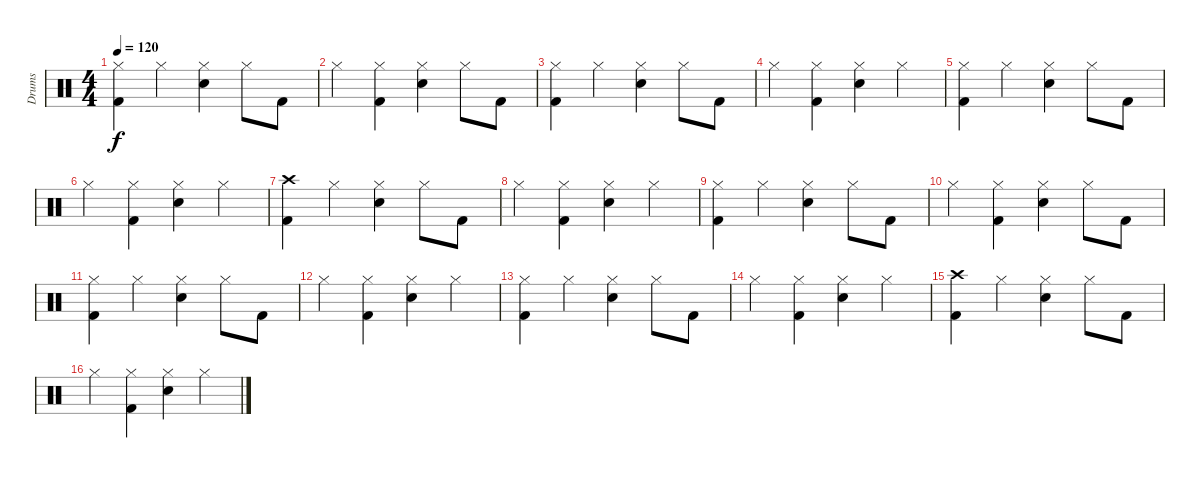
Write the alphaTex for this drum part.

\track ("Drums" "Drums") {instrument percussion}
\staff {score}
\articulation defaults
\ts (4 4)
\tempo 120
\clef neutral
\ks c
("Hi-Hat (closed)" "Kick (hit) 2").4{dy f} "Hi-Hat (closed)".4 ("Hi-Hat (closed)" "Snare (hit) 2").4 "Hi-Hat (closed)".8 "Kick (hit) 2".8 |
"Hi-Hat (closed)".4 ("Hi-Hat (closed)" "Kick (hit) 2").4 ("Hi-Hat (closed)" "Snare (hit) 2").4 "Hi-Hat (closed)".8 "Kick (hit) 2".8 |
("Hi-Hat (closed)" "Kick (hit) 2").4 "Hi-Hat (closed)".4 ("Hi-Hat (closed)" "Snare (hit) 2").4 "Hi-Hat (closed)".8 "Kick (hit) 2".8 |
"Hi-Hat (closed)".4 ("Hi-Hat (closed)" "Kick (hit) 2").4 ("Hi-Hat (closed)" "Snare (hit) 2").4 "Hi-Hat (closed)".4 |
("Hi-Hat (closed)" "Kick (hit) 2").4 "Hi-Hat (closed)".4 ("Hi-Hat (closed)" "Snare (hit) 2").4 "Hi-Hat (closed)".8 "Kick (hit) 2".8 |
"Hi-Hat (closed)".4 ("Hi-Hat (closed)" "Kick (hit) 2").4 ("Hi-Hat (closed)" "Snare (hit) 2").4 "Hi-Hat (closed)".4 |
("Crash high (hit)" "Kick (hit) 2").4 "Hi-Hat (closed)".4 ("Hi-Hat (closed)" "Snare (hit) 2").4 "Hi-Hat (closed)".8 "Kick (hit) 2".8 |
"Hi-Hat (closed)".4 ("Hi-Hat (closed)" "Kick (hit) 2").4 ("Hi-Hat (closed)" "Snare (hit) 2").4 "Hi-Hat (closed)".4 |
("Hi-Hat (closed)" "Kick (hit) 2").4 "Hi-Hat (closed)".4 ("Hi-Hat (closed)" "Snare (hit) 2").4 "Hi-Hat (closed)".8 "Kick (hit) 2".8 |
"Hi-Hat (closed)".4 ("Hi-Hat (closed)" "Kick (hit) 2").4 ("Hi-Hat (closed)" "Snare (hit) 2").4 "Hi-Hat (closed)".8 "Kick (hit) 2".8 |
("Hi-Hat (closed)" "Kick (hit) 2").4 "Hi-Hat (closed)".4 ("Hi-Hat (closed)" "Snare (hit) 2").4 "Hi-Hat (closed)".8 "Kick (hit) 2".8 |
"Hi-Hat (closed)".4 ("Hi-Hat (closed)" "Kick (hit) 2").4 ("Hi-Hat (closed)" "Snare (hit) 2").4 "Hi-Hat (closed)".4 |
("Hi-Hat (closed)" "Kick (hit) 2").4 "Hi-Hat (closed)".4 ("Hi-Hat (closed)" "Snare (hit) 2").4 "Hi-Hat (closed)".8 "Kick (hit) 2".8 |
"Hi-Hat (closed)".4 ("Hi-Hat (closed)" "Kick (hit) 2").4 ("Hi-Hat (closed)" "Snare (hit) 2").4 "Hi-Hat (closed)".4 |
("Crash high (hit)" "Kick (hit) 2").4 "Hi-Hat (closed)".4 ("Hi-Hat (closed)" "Snare (hit) 2").4 "Hi-Hat (closed)".8 "Kick (hit) 2".8 |
"Hi-Hat (closed)".4 ("Hi-Hat (closed)" "Kick (hit) 2").4 ("Hi-Hat (closed)" "Snare (hit) 2").4 "Hi-Hat (closed)".4
